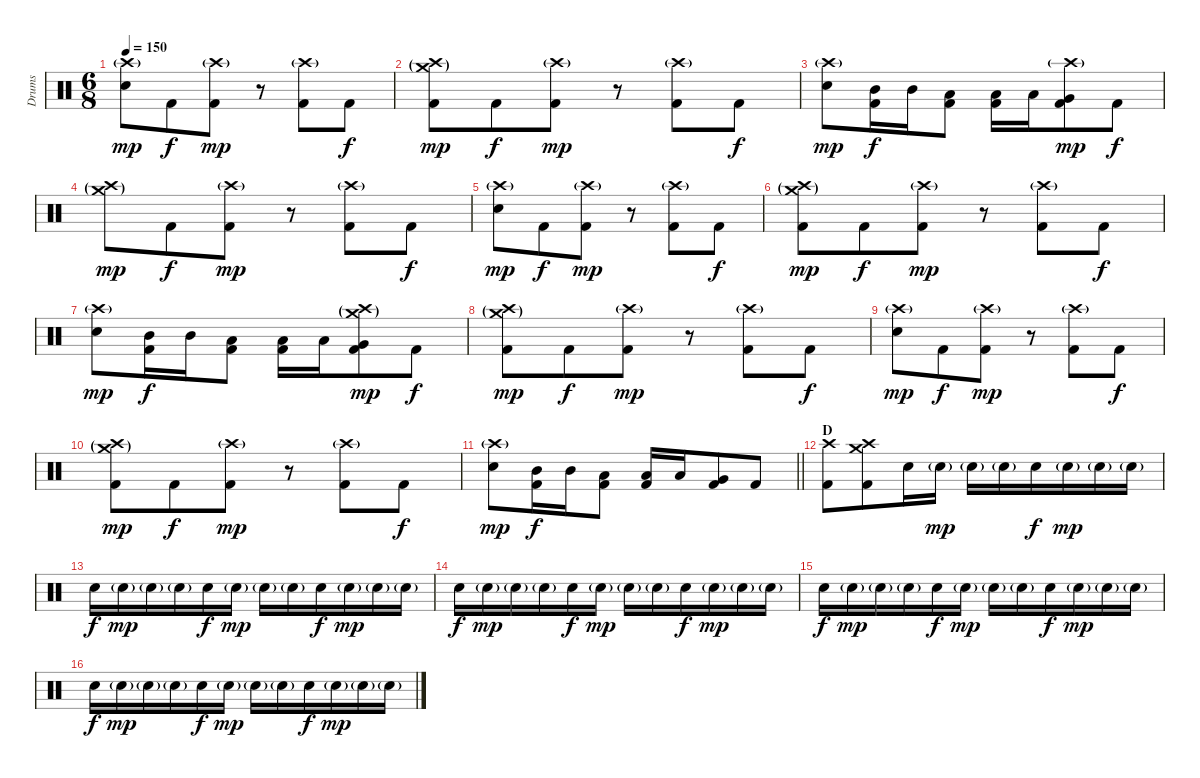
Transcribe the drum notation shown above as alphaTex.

\track ("Drums" "Drums") {mute instrument percussion}
\staff {score}
\articulation defaults
\ts (6 8)
\tempo 150
\clef neutral
\ks c
("Crash high (hit)"{g} "Electric Snare (hit)").8{dy mp} "Kick (hit) 2".8{dy f} ("Crash high (hit)"{g} "Kick (hit) 2").8{dy mp} r.8 ("Crash high (hit)"{g} "Kick (hit) 2").8 "Kick (hit) 2".8{dy f} |
("Crash medium (hit)"{g} "Crash high (hit)"{g} "Kick (hit) 2").8{dy mp} "Kick (hit) 2".8{dy f} ("Crash high (hit)"{g} "Kick (hit) 2").8{dy mp} r.8 ("Crash high (hit)"{g} "Kick (hit) 2").8 "Kick (hit) 2".8{dy f} |
("Crash high (hit)"{g} "Electric Snare (hit)").8{dy mp} ("Mid Tom (hit)" "Kick (hit) 2").16{dy f} "Mid Tom (hit)".16 ("Low Tom (hit)" "Kick (hit) 2").8 ("Low Tom (hit)" "Kick (hit) 2").16 "Low Tom (hit)".16 ("Crash high (hit)"{g} "Very Low Tom (hit)" "Kick (hit) 2").8{dy mp} "Kick (hit) 2".8{dy f} |
("Crash medium (hit)"{g} "Crash high (hit)"{g}).8{dy mp} "Kick (hit) 2".8{dy f} ("Crash high (hit)"{g} "Kick (hit) 2").8{dy mp} r.8 ("Crash high (hit)"{g} "Kick (hit) 2").8 "Kick (hit) 2".8{dy f} |
("Crash high (hit)"{g} "Electric Snare (hit)").8{dy mp} "Kick (hit) 2".8{dy f} ("Crash high (hit)"{g} "Kick (hit) 2").8{dy mp} r.8 ("Crash high (hit)"{g} "Kick (hit) 2").8 "Kick (hit) 2".8{dy f} |
("Crash medium (hit)"{g} "Crash high (hit)"{g} "Kick (hit) 2").8{dy mp} "Kick (hit) 2".8{dy f} ("Crash high (hit)"{g} "Kick (hit) 2").8{dy mp} r.8 ("Crash high (hit)"{g} "Kick (hit) 2").8 "Kick (hit) 2".8{dy f} |
("Crash high (hit)"{g} "Electric Snare (hit)").8{dy mp} ("Mid Tom (hit)" "Kick (hit) 2").16{dy f} "Mid Tom (hit)".16 ("Low Tom (hit)" "Kick (hit) 2").8 ("Low Tom (hit)" "Kick (hit) 2").16 "Low Tom (hit)".16 ("Crash medium (hit)"{g} "Crash high (hit)"{g} "Very Low Tom (hit)" "Kick (hit) 2").8{dy mp} "Kick (hit) 2".8{dy f} |
("Crash medium (hit)"{g} "Crash high (hit)"{g} "Kick (hit) 2").8{dy mp} "Kick (hit) 2".8{dy f} ("Crash high (hit)"{g} "Kick (hit) 2").8{dy mp} r.8 ("Crash high (hit)"{g} "Kick (hit) 2").8 "Kick (hit) 2".8{dy f} |
("Crash high (hit)"{g} "Electric Snare (hit)").8{dy mp} "Kick (hit) 2".8{dy f} ("Crash high (hit)"{g} "Kick (hit) 2").8{dy mp} r.8 ("Crash high (hit)"{g} "Kick (hit) 2").8 "Kick (hit) 2".8{dy f} |
("Crash medium (hit)"{g} "Crash high (hit)"{g} "Kick (hit) 2").8{dy mp} "Kick (hit) 2".8{dy f} ("Crash high (hit)"{g} "Kick (hit) 2").8{dy mp} r.8 ("Crash high (hit)"{g} "Kick (hit) 2").8 "Kick (hit) 2".8{dy f} |
\barLineRight lightlight
("Crash high (hit)"{g} "Electric Snare (hit)").8{dy mp} ("Mid Tom (hit)" "Kick (hit) 2").16{dy f} "Mid Tom (hit)".16 ("Low Tom (hit)" "Kick (hit) 2").8 ("Low Tom (hit)" "Kick (hit) 2").16 "Low Tom (hit)".16 ("Very Low Tom (hit)" "Kick (hit) 2").8 "Kick (hit) 2".8 |
\section ("" "D")
("Crash high (hit)" "Kick (hit) 2").8 ("Crash medium (hit)" "Crash high (hit)" "Kick (hit) 2").8 "Electric Snare (hit)".16 "Electric Snare (hit)"{g}.16{dy mp} "Electric Snare (hit)"{g}.16 "Electric Snare (hit)"{g}.16 "Electric Snare (hit)".16{dy f} "Electric Snare (hit)"{g}.16{dy mp} "Electric Snare (hit)"{g}.16 "Electric Snare (hit)"{g}.16 |
"Electric Snare (hit)".16{dy f} "Electric Snare (hit)"{g}.16{dy mp} "Electric Snare (hit)"{g}.16 "Electric Snare (hit)"{g}.16 "Electric Snare (hit)".16{dy f} "Electric Snare (hit)"{g}.16{dy mp} "Electric Snare (hit)"{g}.16 "Electric Snare (hit)"{g}.16 "Electric Snare (hit)".16{dy f} "Electric Snare (hit)"{g}.16{dy mp} "Electric Snare (hit)"{g}.16 "Electric Snare (hit)"{g}.16 |
"Electric Snare (hit)".16{dy f} "Electric Snare (hit)"{g}.16{dy mp} "Electric Snare (hit)"{g}.16 "Electric Snare (hit)"{g}.16 "Electric Snare (hit)".16{dy f} "Electric Snare (hit)"{g}.16{dy mp} "Electric Snare (hit)"{g}.16 "Electric Snare (hit)"{g}.16 "Electric Snare (hit)".16{dy f} "Electric Snare (hit)"{g}.16{dy mp} "Electric Snare (hit)"{g}.16 "Electric Snare (hit)"{g}.16 |
"Electric Snare (hit)".16{dy f} "Electric Snare (hit)"{g}.16{dy mp} "Electric Snare (hit)"{g}.16 "Electric Snare (hit)"{g}.16 "Electric Snare (hit)".16{dy f} "Electric Snare (hit)"{g}.16{dy mp} "Electric Snare (hit)"{g}.16 "Electric Snare (hit)"{g}.16 "Electric Snare (hit)".16{dy f} "Electric Snare (hit)"{g}.16{dy mp} "Electric Snare (hit)"{g}.16 "Electric Snare (hit)"{g}.16 |
"Electric Snare (hit)".16{dy f} "Electric Snare (hit)"{g}.16{dy mp} "Electric Snare (hit)"{g}.16 "Electric Snare (hit)"{g}.16 "Electric Snare (hit)".16{dy f} "Electric Snare (hit)"{g}.16{dy mp} "Electric Snare (hit)"{g}.16 "Electric Snare (hit)"{g}.16 "Electric Snare (hit)".16{dy f} "Electric Snare (hit)"{g}.16{dy mp} "Electric Snare (hit)"{g}.16 "Electric Snare (hit)"{g}.16
